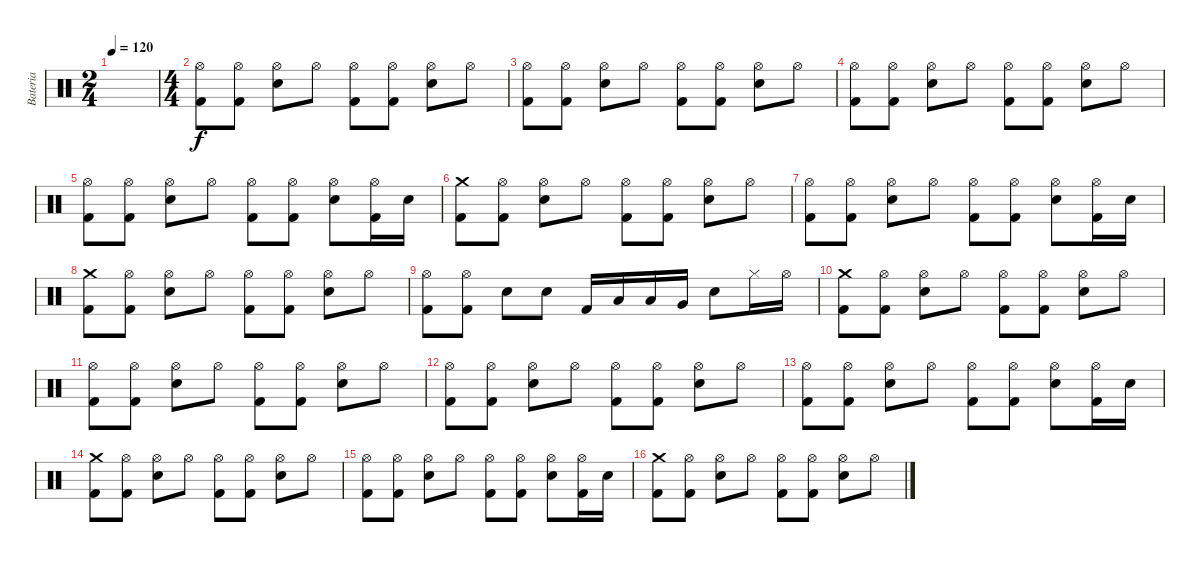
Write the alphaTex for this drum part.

\track ("Bateria" "Bateria") {instrument percussion}
\staff {score}
\articulation defaults
\ts (2 4)
\tempo 120
\clef neutral
\ks c
|
\ts (4 4)
("Hi-Hat (open)" "Kick (hit) 2").8 ("Hi-Hat (open)" "Kick (hit) 2").8 ("Hi-Hat (open)" "Electric Snare (hit)").8 "Hi-Hat (open)".8 ("Hi-Hat (open)" "Kick (hit) 2").8 ("Hi-Hat (open)" "Kick (hit) 2").8 ("Hi-Hat (open)" "Electric Snare (hit)").8 "Hi-Hat (open)".8 |
("Hi-Hat (open)" "Kick (hit) 2").8 ("Hi-Hat (open)" "Kick (hit) 2").8 ("Hi-Hat (open)" "Electric Snare (hit)").8 "Hi-Hat (open)".8 ("Hi-Hat (open)" "Kick (hit) 2").8 ("Hi-Hat (open)" "Kick (hit) 2").8 ("Hi-Hat (open)" "Electric Snare (hit)").8 "Hi-Hat (open)".8 |
("Hi-Hat (open)" "Kick (hit) 2").8 ("Hi-Hat (open)" "Kick (hit) 2").8 ("Hi-Hat (open)" "Electric Snare (hit)").8 "Hi-Hat (open)".8 ("Hi-Hat (open)" "Kick (hit) 2").8 ("Hi-Hat (open)" "Kick (hit) 2").8 ("Hi-Hat (open)" "Electric Snare (hit)").8 "Hi-Hat (open)".8 |
("Hi-Hat (open)" "Kick (hit) 2").8 ("Hi-Hat (open)" "Kick (hit) 2").8 ("Hi-Hat (open)" "Electric Snare (hit)").8 "Hi-Hat (open)".8 ("Hi-Hat (open)" "Kick (hit) 2").8 ("Hi-Hat (open)" "Kick (hit) 2").8 ("Hi-Hat (open)" "Electric Snare (hit)").8 ("Hi-Hat (open)" "Kick (hit) 2").16 "Electric Snare (hit)".16 |
("Crash medium (hit)" "Kick (hit) 2").8 ("Hi-Hat (open)" "Kick (hit) 2").8 ("Hi-Hat (open)" "Electric Snare (hit)").8 "Hi-Hat (open)".8 ("Hi-Hat (open)" "Kick (hit) 2").8 ("Hi-Hat (open)" "Kick (hit) 2").8 ("Hi-Hat (open)" "Electric Snare (hit)").8 "Hi-Hat (open)".8 |
("Hi-Hat (open)" "Kick (hit) 2").8 ("Hi-Hat (open)" "Kick (hit) 2").8 ("Hi-Hat (open)" "Electric Snare (hit)").8 "Hi-Hat (open)".8 ("Hi-Hat (open)" "Kick (hit) 2").8 ("Hi-Hat (open)" "Kick (hit) 2").8 ("Hi-Hat (open)" "Electric Snare (hit)").8 ("Hi-Hat (open)" "Kick (hit) 2").16 "Electric Snare (hit)".16 |
("Crash medium (hit)" "Kick (hit) 2").8 ("Hi-Hat (open)" "Kick (hit) 2").8 ("Hi-Hat (open)" "Electric Snare (hit)").8 "Hi-Hat (open)".8 ("Hi-Hat (open)" "Kick (hit) 2").8 ("Hi-Hat (open)" "Kick (hit) 2").8 ("Hi-Hat (open)" "Electric Snare (hit)").8 "Hi-Hat (open)".8 |
("Hi-Hat (open)" "Kick (hit) 2").8 ("Hi-Hat (open)" "Kick (hit) 2").8 "Electric Snare (hit)".8 "Electric Snare (hit)".8 "Kick (hit) 2".16 "Low Tom (hit)".16 "Low Tom (hit)".16 "Very Low Tom (hit)".16 "Electric Snare (hit)".8 "Hi-Hat (closed)".16 "Hi-Hat (open)".16 |
("Crash medium (hit)" "Kick (hit) 2").8 ("Hi-Hat (open)" "Kick (hit) 2").8 ("Hi-Hat (open)" "Electric Snare (hit)").8 "Hi-Hat (open)".8 ("Hi-Hat (open)" "Kick (hit) 2").8 ("Hi-Hat (open)" "Kick (hit) 2").8 ("Hi-Hat (open)" "Electric Snare (hit)").8 "Hi-Hat (open)".8 |
("Hi-Hat (open)" "Kick (hit) 2").8 ("Hi-Hat (open)" "Kick (hit) 2").8 ("Hi-Hat (open)" "Electric Snare (hit)").8 "Hi-Hat (open)".8 ("Hi-Hat (open)" "Kick (hit) 2").8 ("Hi-Hat (open)" "Kick (hit) 2").8 ("Hi-Hat (open)" "Electric Snare (hit)").8 "Hi-Hat (open)".8 |
("Hi-Hat (open)" "Kick (hit) 2").8 ("Hi-Hat (open)" "Kick (hit) 2").8 ("Hi-Hat (open)" "Electric Snare (hit)").8 "Hi-Hat (open)".8 ("Hi-Hat (open)" "Kick (hit) 2").8 ("Hi-Hat (open)" "Kick (hit) 2").8 ("Hi-Hat (open)" "Electric Snare (hit)").8 "Hi-Hat (open)".8 |
("Hi-Hat (open)" "Kick (hit) 2").8 ("Hi-Hat (open)" "Kick (hit) 2").8 ("Hi-Hat (open)" "Electric Snare (hit)").8 "Hi-Hat (open)".8 ("Hi-Hat (open)" "Kick (hit) 2").8 ("Hi-Hat (open)" "Kick (hit) 2").8 ("Hi-Hat (open)" "Electric Snare (hit)").8 ("Hi-Hat (open)" "Kick (hit) 2").16 "Electric Snare (hit)".16 |
("Crash medium (hit)" "Kick (hit) 2").8 ("Hi-Hat (open)" "Kick (hit) 2").8 ("Hi-Hat (open)" "Electric Snare (hit)").8 "Hi-Hat (open)".8 ("Hi-Hat (open)" "Kick (hit) 2").8 ("Hi-Hat (open)" "Kick (hit) 2").8 ("Hi-Hat (open)" "Electric Snare (hit)").8 "Hi-Hat (open)".8 |
("Hi-Hat (open)" "Kick (hit) 2").8 ("Hi-Hat (open)" "Kick (hit) 2").8 ("Hi-Hat (open)" "Electric Snare (hit)").8 "Hi-Hat (open)".8 ("Hi-Hat (open)" "Kick (hit) 2").8 ("Hi-Hat (open)" "Kick (hit) 2").8 ("Hi-Hat (open)" "Electric Snare (hit)").8 ("Hi-Hat (open)" "Kick (hit) 2").16 "Electric Snare (hit)".16 |
("Crash medium (hit)" "Kick (hit) 2").8 ("Hi-Hat (open)" "Kick (hit) 2").8 ("Hi-Hat (open)" "Electric Snare (hit)").8 "Hi-Hat (open)".8 ("Hi-Hat (open)" "Kick (hit) 2").8 ("Hi-Hat (open)" "Kick (hit) 2").8 ("Hi-Hat (open)" "Electric Snare (hit)").8 "Hi-Hat (open)".8
